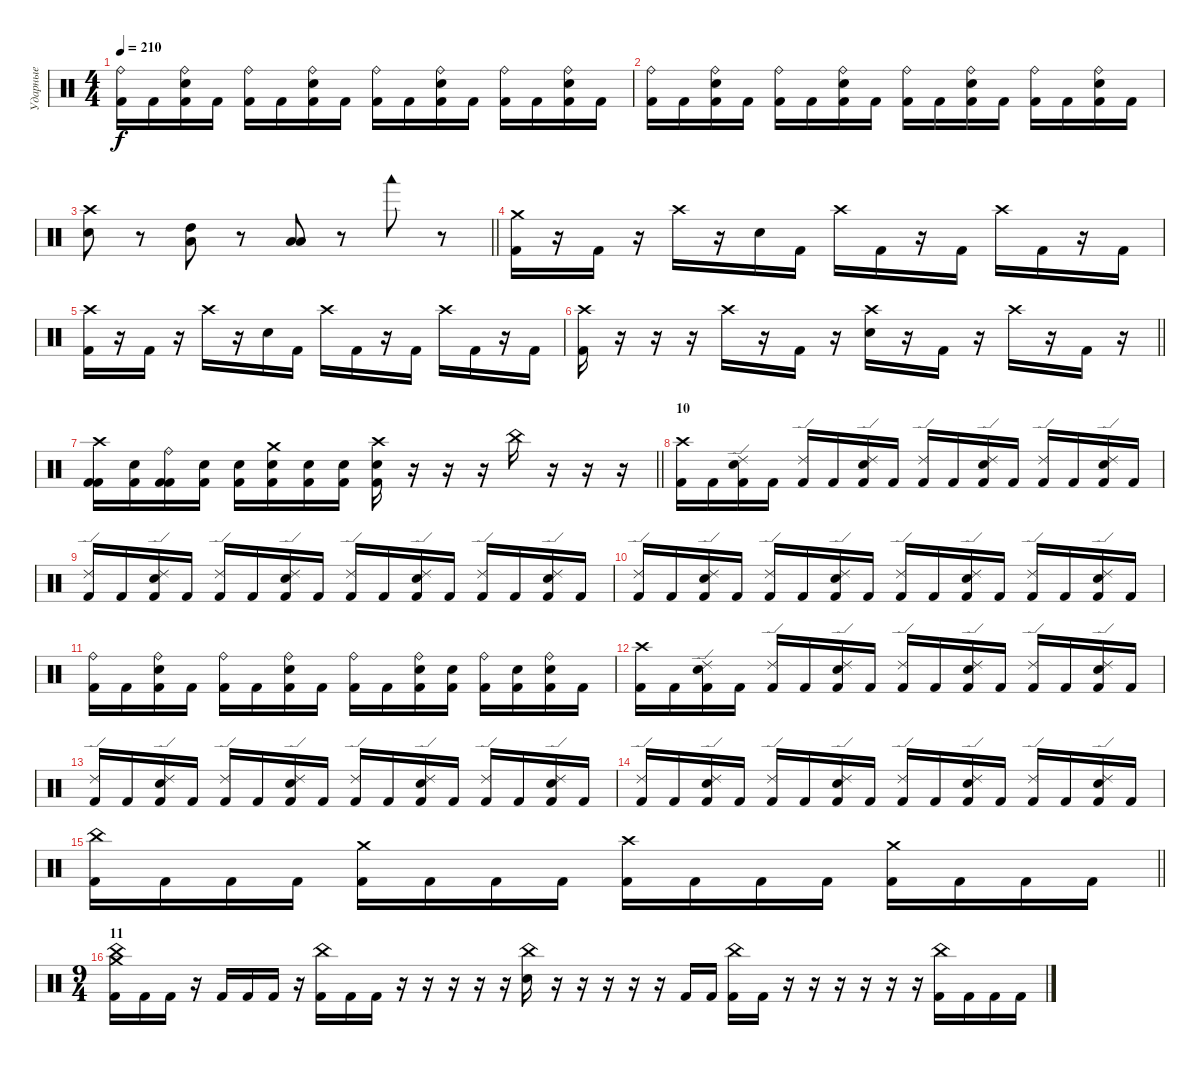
\track ("Ударные" "Ударные") {instrument percussion}
\staff {score}
\articulation defaults
\ts (4 4)
\tempo 210
\clef neutral
\ks c
("Ride (bell)" "Kick (hit) 2").16{dy f} "Kick (hit) 2".16 ("Ride (bell)" "Snare (hit) 2" "Kick (hit) 2").16 "Kick (hit) 2".16 ("Ride (bell)" "Kick (hit) 2").16 "Kick (hit) 2".16 ("Ride (bell)" "Snare (hit) 2" "Kick (hit) 2").16 "Kick (hit) 2".16 ("Ride (bell)" "Kick (hit) 2").16 "Kick (hit) 2".16 ("Ride (bell)" "Snare (hit) 2" "Kick (hit) 2").16 "Kick (hit) 2".16 ("Ride (bell)" "Kick (hit) 2").16 "Kick (hit) 2".16 ("Ride (bell)" "Snare (hit) 2" "Kick (hit) 2").16 "Kick (hit) 2".16 |
("Ride (bell)" "Kick (hit) 2").16 "Kick (hit) 2".16 ("Ride (bell)" "Snare (hit) 2" "Kick (hit) 2").16 "Kick (hit) 2".16 ("Ride (bell)" "Kick (hit) 2").16 "Kick (hit) 2".16 ("Ride (bell)" "Snare (hit) 2" "Kick (hit) 2").16 "Kick (hit) 2".16 ("Ride (bell)" "Kick (hit) 2").16 "Kick (hit) 2".16 ("Ride (bell)" "Snare (hit) 2" "Kick (hit) 2").16 "Kick (hit) 2".16 ("Ride (bell)" "Kick (hit) 2").16 "Kick (hit) 2".16 ("Ride (bell)" "Snare (hit) 2" "Kick (hit) 2").16 "Kick (hit) 2".16 |
\barLineRight lightlight
("Crash high (hit)" "Snare (hit) 2").8 r.8 ("High Tom (hit)" "Low Floor Tom (hit)").8 r.8 ("Low Floor Tom (hit)" "Low Tom (hit)").8 r.8 "Woodblock low (hit)".8 r.8 |
("Crash medium (hit)" "Kick (hit) 2").16 r.16 "Kick (hit) 2".16 r.16 "Crash high (hit)".16 r.16 "Snare (hit) 2".16 "Kick (hit) 2".16 "Crash high (hit)".16 "Kick (hit) 2".16 r.16 "Kick (hit) 2".16 "Crash high (hit)".16 "Kick (hit) 2".16 r.16 "Kick (hit) 2".16 |
("Crash high (hit)" "Kick (hit) 2").16 r.16 "Kick (hit) 2".16 r.16 "Crash high (hit)".16 r.16 "Snare (hit) 2".16 "Kick (hit) 2".16 "Crash high (hit)".16 "Kick (hit) 2".16 r.16 "Kick (hit) 2".16 "Crash high (hit)".16 "Kick (hit) 2".16 r.16 "Kick (hit) 2".16 |
\barLineRight lightlight
("Crash high (hit)" "Kick (hit) 2").16 r.16 r.16 r.16 "Crash high (hit)".16 r.16 "Kick (hit) 2".16 r.16 ("Crash high (hit)" "Snare (hit) 2").16 r.16 "Kick (hit) 2".16 r.16 "Crash high (hit)".16 r.16 "Kick (hit) 2".16 r.16 |
\barLineRight lightlight
("Crash high (hit)" "Kick (hit) 2" "Kick (hit) 2").16 ("Snare (hit) 2" "Kick (hit) 2").16 ("Ride (bell)" "Kick (hit) 2" "Kick (hit) 2").16 ("Snare (hit) 2" "Kick (hit) 2").16 ("Snare (hit) 2" "Kick (hit) 2").16 ("Crash medium (hit)" "Snare (hit) 2" "Kick (hit) 2").16 ("Snare (hit) 2" "Kick (hit) 2").16 ("Snare (hit) 2" "Kick (hit) 2").16 ("Crash high (hit)" "Snare (hit) 2" "Kick (hit) 2").16 r.16 r.16 r.16 "China (hit)".16 r.16 r.16 r.16 |
\section ("" "10")
("Crash high (hit)" "Kick (hit) 2").16 "Kick (hit) 2".16 ("Ride (edge) 2" "Snare (hit) 2" "Kick (hit) 2").16 "Kick (hit) 2".16 ("Ride (edge) 2" "Kick (hit) 2").16 "Kick (hit) 2".16 ("Ride (edge) 2" "Snare (hit) 2" "Kick (hit) 2").16 "Kick (hit) 2".16 ("Ride (edge) 2" "Kick (hit) 2").16 "Kick (hit) 2".16 ("Ride (edge) 2" "Snare (hit) 2" "Kick (hit) 2").16 "Kick (hit) 2".16 ("Ride (edge) 2" "Kick (hit) 2").16 "Kick (hit) 2".16 ("Ride (edge) 2" "Snare (hit) 2" "Kick (hit) 2").16 "Kick (hit) 2".16 |
("Ride (edge) 2" "Kick (hit) 2").16 "Kick (hit) 2".16 ("Ride (edge) 2" "Snare (hit) 2" "Kick (hit) 2").16 "Kick (hit) 2".16 ("Ride (edge) 2" "Kick (hit) 2").16 "Kick (hit) 2".16 ("Ride (edge) 2" "Snare (hit) 2" "Kick (hit) 2").16 "Kick (hit) 2".16 ("Ride (edge) 2" "Kick (hit) 2").16 "Kick (hit) 2".16 ("Ride (edge) 2" "Snare (hit) 2" "Kick (hit) 2").16 "Kick (hit) 2".16 ("Ride (edge) 2" "Kick (hit) 2").16 "Kick (hit) 2".16 ("Ride (edge) 2" "Snare (hit) 2" "Kick (hit) 2").16 "Kick (hit) 2".16 |
("Ride (edge) 2" "Kick (hit) 2").16 "Kick (hit) 2".16 ("Ride (edge) 2" "Snare (hit) 2" "Kick (hit) 2").16 "Kick (hit) 2".16 ("Ride (edge) 2" "Kick (hit) 2").16 "Kick (hit) 2".16 ("Ride (edge) 2" "Snare (hit) 2" "Kick (hit) 2").16 "Kick (hit) 2".16 ("Ride (edge) 2" "Kick (hit) 2").16 "Kick (hit) 2".16 ("Ride (edge) 2" "Snare (hit) 2" "Kick (hit) 2").16 "Kick (hit) 2".16 ("Ride (edge) 2" "Kick (hit) 2").16 "Kick (hit) 2".16 ("Ride (edge) 2" "Snare (hit) 2" "Kick (hit) 2").16 "Kick (hit) 2".16 |
("Ride (bell)" "Kick (hit) 2").16 "Kick (hit) 2".16 ("Ride (bell)" "Snare (hit) 2" "Kick (hit) 2").16 "Kick (hit) 2".16 ("Ride (bell)" "Kick (hit) 2").16 "Kick (hit) 2".16 ("Ride (bell)" "Snare (hit) 2" "Kick (hit) 2").16 "Kick (hit) 2".16 ("Ride (bell)" "Kick (hit) 2").16 "Kick (hit) 2".16 ("Ride (bell)" "Snare (hit) 2" "Kick (hit) 2").16 ("Snare (hit) 2" "Kick (hit) 2").16 ("Ride (bell)" "Kick (hit) 2").16 ("Snare (hit) 2" "Kick (hit) 2").16 ("Ride (bell)" "Snare (hit) 2" "Kick (hit) 2").16 "Kick (hit) 2".16 |
("Crash high (hit)" "Kick (hit) 2").16 "Kick (hit) 2".16 ("Ride (edge) 2" "Snare (hit) 2" "Kick (hit) 2").16 "Kick (hit) 2".16 ("Ride (edge) 2" "Kick (hit) 2").16 "Kick (hit) 2".16 ("Ride (edge) 2" "Snare (hit) 2" "Kick (hit) 2").16 "Kick (hit) 2".16 ("Ride (edge) 2" "Kick (hit) 2").16 "Kick (hit) 2".16 ("Ride (edge) 2" "Snare (hit) 2" "Kick (hit) 2").16 "Kick (hit) 2".16 ("Ride (edge) 2" "Kick (hit) 2").16 "Kick (hit) 2".16 ("Ride (edge) 2" "Snare (hit) 2" "Kick (hit) 2").16 "Kick (hit) 2".16 |
("Ride (edge) 2" "Kick (hit) 2").16 "Kick (hit) 2".16 ("Ride (edge) 2" "Snare (hit) 2" "Kick (hit) 2").16 "Kick (hit) 2".16 ("Ride (edge) 2" "Kick (hit) 2").16 "Kick (hit) 2".16 ("Ride (edge) 2" "Snare (hit) 2" "Kick (hit) 2").16 "Kick (hit) 2".16 ("Ride (edge) 2" "Kick (hit) 2").16 "Kick (hit) 2".16 ("Ride (edge) 2" "Snare (hit) 2" "Kick (hit) 2").16 "Kick (hit) 2".16 ("Ride (edge) 2" "Kick (hit) 2").16 "Kick (hit) 2".16 ("Ride (edge) 2" "Snare (hit) 2" "Kick (hit) 2").16 "Kick (hit) 2".16 |
("Ride (edge) 2" "Kick (hit) 2").16 "Kick (hit) 2".16 ("Ride (edge) 2" "Snare (hit) 2" "Kick (hit) 2").16 "Kick (hit) 2".16 ("Ride (edge) 2" "Kick (hit) 2").16 "Kick (hit) 2".16 ("Ride (edge) 2" "Snare (hit) 2" "Kick (hit) 2").16 "Kick (hit) 2".16 ("Ride (edge) 2" "Kick (hit) 2").16 "Kick (hit) 2".16 ("Ride (edge) 2" "Snare (hit) 2" "Kick (hit) 2").16 "Kick (hit) 2".16 ("Ride (edge) 2" "Kick (hit) 2").16 "Kick (hit) 2".16 ("Ride (edge) 2" "Snare (hit) 2" "Kick (hit) 2").16 "Kick (hit) 2".16 |
\barLineRight lightlight
("China (hit)" "Kick (hit) 2").16 "Kick (hit) 2".16 "Kick (hit) 2".16 "Kick (hit) 2".16 ("Crash medium (hit)" "Kick (hit) 2").16 "Kick (hit) 2".16 "Kick (hit) 2".16 "Kick (hit) 2".16 ("Crash high (hit)" "Kick (hit) 2").16 "Kick (hit) 2".16 "Kick (hit) 2".16 "Kick (hit) 2".16 ("Crash medium (hit)" "Kick (hit) 2").16 "Kick (hit) 2".16 "Kick (hit) 2".16 "Kick (hit) 2".16 |
\ts (9 4)
\section ("" "11")
("China (hit)" "Crash medium (hit)" "Kick (hit) 2").16 "Kick (hit) 2".16 "Kick (hit) 2".16 r.16 "Kick (hit) 2".16 "Kick (hit) 2".16 "Kick (hit) 2".16 r.16 ("China (hit)" "Kick (hit) 2").16 "Kick (hit) 2".16 "Kick (hit) 2".16 r.16 r.16 r.16 r.16 r.16 ("China (hit)" "Snare (hit) 2").16 r.16 r.16 r.16 r.16 r.16 "Kick (hit) 2".16 "Kick (hit) 2".16 ("China (hit)" "Kick (hit) 2").16 "Kick (hit) 2".16 r.16 r.16 r.16 r.16 r.16 r.16 ("China (hit)" "Kick (hit) 2").16 "Kick (hit) 2".16 "Kick (hit) 2".16 "Kick (hit) 2".16
